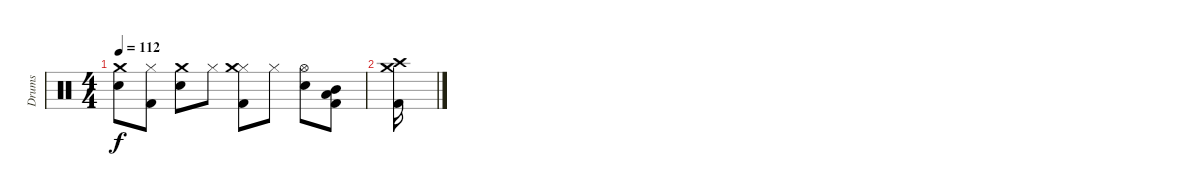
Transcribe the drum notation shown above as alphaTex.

\track ("Drums" "Drums") {instrument percussion}
\staff {score}
\articulation defaults
\ts (4 4)
\tempo 112
\clef neutral
\ks c
("Electric Snare (hit)" "Crash medium (hit)").8{dy f} ("Kick (hit) 2" "Hi-Hat (closed)").8 ("Electric Snare (hit)" "Crash medium (hit)").8 "Hi-Hat (closed)".8 ("Kick (hit) 2" "Hi-Hat (closed)" "Crash medium (hit)").8 "Hi-Hat (closed)".8 ("Electric Snare (hit)" "Hi-Hat (open)").8 ("Kick (hit) 2" "Low Tom (hit)" "Mid Tom (hit)").8 |
("Kick (hit) 2" "Crash high (hit)" "Crash medium (hit)").16
